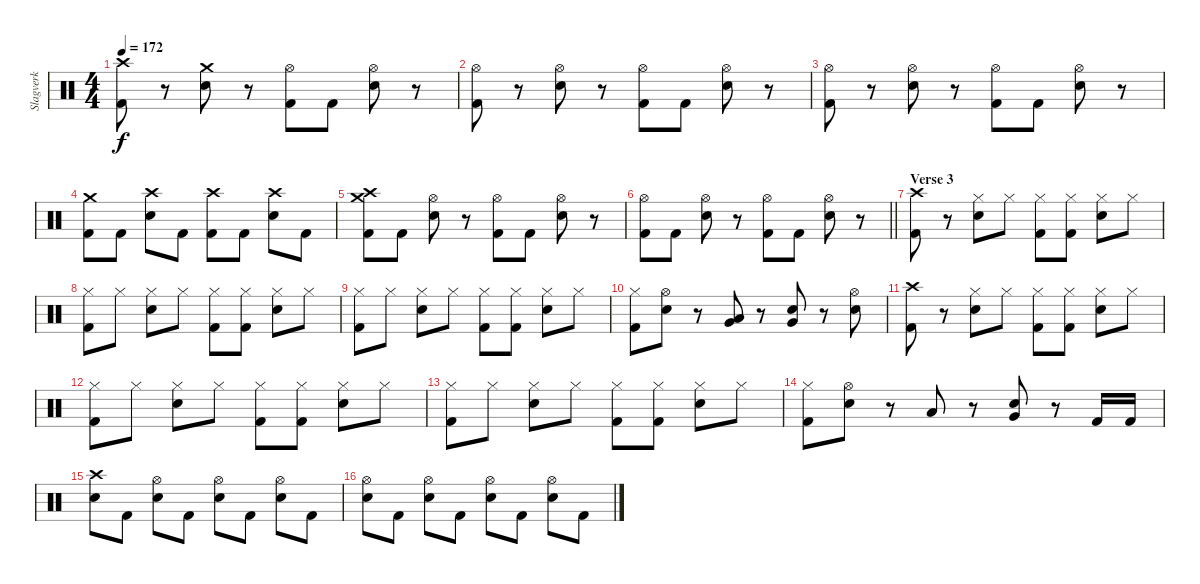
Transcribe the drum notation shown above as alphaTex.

\track ("Slagverk" "Slagverk") {instrument percussion}
\staff {score}
\articulation defaults
\ts (4 4)
\tempo 172
\clef neutral
\ks c
("Crash high (hit)" "Kick (hit) 2").8{dy f} r.8 ("Crash medium (hit)" "Electric Snare (hit)").8 r.8 ("Hi-Hat (open)" "Kick (hit) 2").8 "Kick (hit) 2".8 ("Hi-Hat (open)" "Electric Snare (hit)").8 r.8 |
("Hi-Hat (open)" "Kick (hit) 2").8 r.8 ("Hi-Hat (open)" "Electric Snare (hit)").8 r.8 ("Hi-Hat (open)" "Kick (hit) 2").8 "Kick (hit) 2".8 ("Hi-Hat (open)" "Electric Snare (hit)").8 r.8 |
("Hi-Hat (open)" "Kick (hit) 2").8 r.8 ("Hi-Hat (open)" "Electric Snare (hit)").8 r.8 ("Hi-Hat (open)" "Kick (hit) 2").8 "Kick (hit) 2".8 ("Hi-Hat (open)" "Electric Snare (hit)").8 r.8 |
("Crash medium (hit)" "Kick (hit) 2").8 "Kick (hit) 2".8 ("Crash high (hit)" "Electric Snare (hit)").8 "Kick (hit) 2".8 ("Crash high (hit)" "Kick (hit) 2").8 "Kick (hit) 2".8 ("Crash high (hit)" "Electric Snare (hit)").8 "Kick (hit) 2".8 |
("Crash high (hit)" "Crash medium (hit)" "Kick (hit) 2").8 "Kick (hit) 2".8 ("Hi-Hat (open)" "Electric Snare (hit)").8 r.8 ("Hi-Hat (open)" "Kick (hit) 2").8 "Kick (hit) 2".8 ("Hi-Hat (open)" "Electric Snare (hit)").8 r.8 |
\barLineRight lightlight
("Hi-Hat (open)" "Kick (hit) 2").8 "Kick (hit) 2".8 ("Hi-Hat (open)" "Electric Snare (hit)").8 r.8 ("Hi-Hat (open)" "Kick (hit) 2").8 "Kick (hit) 2".8 ("Hi-Hat (open)" "Electric Snare (hit)").8 r.8 |
\section ("" "Verse 3")
("Crash high (hit)" "Kick (hit) 2").8 r.8 ("Hi-Hat (closed)" "Electric Snare (hit)").8 "Hi-Hat (closed)".8 ("Hi-Hat (closed)" "Kick (hit) 2").8 ("Hi-Hat (closed)" "Kick (hit) 2").8 ("Hi-Hat (closed)" "Electric Snare (hit)").8 "Hi-Hat (closed)".8 |
("Hi-Hat (closed)" "Kick (hit) 2").8 "Hi-Hat (closed)".8 ("Hi-Hat (closed)" "Electric Snare (hit)").8 "Hi-Hat (closed)".8 ("Hi-Hat (closed)" "Kick (hit) 2").8 ("Hi-Hat (closed)" "Kick (hit) 2").8 ("Hi-Hat (closed)" "Electric Snare (hit)").8 "Hi-Hat (closed)".8 |
("Hi-Hat (closed)" "Kick (hit) 2").8 "Hi-Hat (closed)".8 ("Hi-Hat (closed)" "Electric Snare (hit)").8 "Hi-Hat (closed)".8 ("Hi-Hat (closed)" "Kick (hit) 2").8 ("Hi-Hat (closed)" "Kick (hit) 2").8 ("Hi-Hat (closed)" "Electric Snare (hit)").8 "Hi-Hat (closed)".8 |
("Hi-Hat (closed)" "Kick (hit) 2").8 ("Hi-Hat (open)" "Electric Snare (hit)").8 r.8 ("Low Tom (hit)" "Very Low Tom (hit)").8 r.8 ("Very Low Tom (hit)" "Electric Snare (hit)").8 r.8 ("Hi-Hat (open)" "Electric Snare (hit)").8 |
("Crash high (hit)" "Kick (hit) 2").8 r.8 ("Hi-Hat (closed)" "Electric Snare (hit)").8 "Hi-Hat (closed)".8 ("Hi-Hat (closed)" "Kick (hit) 2").8 ("Hi-Hat (closed)" "Kick (hit) 2").8 ("Hi-Hat (closed)" "Electric Snare (hit)").8 "Hi-Hat (closed)".8 |
("Hi-Hat (closed)" "Kick (hit) 2").8 "Hi-Hat (closed)".8 ("Hi-Hat (closed)" "Electric Snare (hit)").8 "Hi-Hat (closed)".8 ("Hi-Hat (closed)" "Kick (hit) 2").8 ("Hi-Hat (closed)" "Kick (hit) 2").8 ("Hi-Hat (closed)" "Electric Snare (hit)").8 "Hi-Hat (closed)".8 |
("Hi-Hat (closed)" "Kick (hit) 2").8 "Hi-Hat (closed)".8 ("Hi-Hat (closed)" "Electric Snare (hit)").8 "Hi-Hat (closed)".8 ("Hi-Hat (closed)" "Kick (hit) 2").8 ("Hi-Hat (closed)" "Kick (hit) 2").8 ("Hi-Hat (closed)" "Electric Snare (hit)").8 "Hi-Hat (closed)".8 |
("Hi-Hat (closed)" "Kick (hit) 2").8 ("Hi-Hat (open)" "Electric Snare (hit)").8 r.8 "Low Tom (hit)".8 r.8 ("Very Low Tom (hit)" "Electric Snare (hit)").8 r.8 "Kick (hit) 2".16 "Kick (hit) 2".16 |
("Crash high (hit)" "Electric Snare (hit)").8 "Kick (hit) 2".8 ("Hi-Hat (open)" "Electric Snare (hit)").8 "Kick (hit) 2".8 ("Hi-Hat (open)" "Electric Snare (hit)").8 "Kick (hit) 2".8 ("Hi-Hat (open)" "Electric Snare (hit)").8 "Kick (hit) 2".8 |
("Hi-Hat (open)" "Electric Snare (hit)").8 "Kick (hit) 2".8 ("Hi-Hat (open)" "Electric Snare (hit)").8 "Kick (hit) 2".8 ("Hi-Hat (open)" "Electric Snare (hit)").8 "Kick (hit) 2".8 ("Hi-Hat (open)" "Electric Snare (hit)").8 "Kick (hit) 2".8
